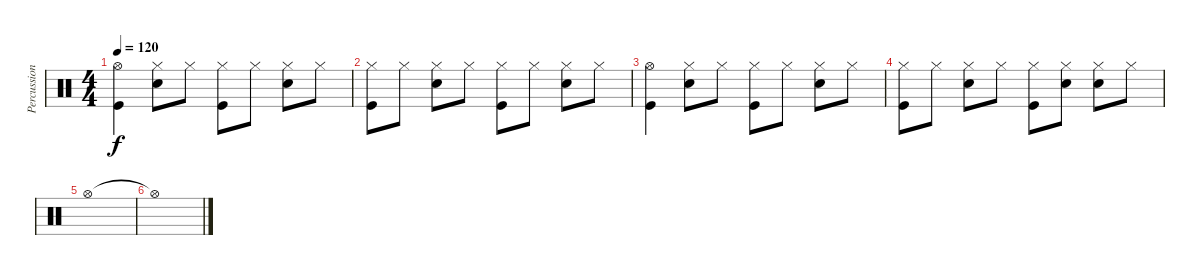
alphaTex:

\track ("Percussion" "Percussion") {instrument percussion}
\staff {score}
\articulation defaults
\ts (4 4)
\tempo 120
\clef neutral
\ks c
("Hi-Hat (open)" "Kick (hit)").4{dy f} ("Hi-Hat (closed)" "Snare (hit) 2").8 "Hi-Hat (closed)".8 ("Hi-Hat (closed)" "Kick (hit)").8 "Hi-Hat (closed)".8 ("Hi-Hat (closed)" "Snare (hit) 2").8 "Hi-Hat (closed)".8 |
("Hi-Hat (closed)" "Kick (hit)").8 "Hi-Hat (closed)".8 ("Hi-Hat (closed)" "Snare (hit) 2").8 "Hi-Hat (closed)".8 ("Hi-Hat (closed)" "Kick (hit)").8 "Hi-Hat (closed)".8 ("Hi-Hat (closed)" "Snare (hit) 2").8 "Hi-Hat (closed)".8 |
("Hi-Hat (open)" "Kick (hit)").4 ("Hi-Hat (closed)" "Snare (hit) 2").8 "Hi-Hat (closed)".8 ("Hi-Hat (closed)" "Kick (hit)").8 "Hi-Hat (closed)".8 ("Hi-Hat (closed)" "Snare (hit) 2").8 "Hi-Hat (closed)".8 |
("Hi-Hat (closed)" "Kick (hit)").8 "Hi-Hat (closed)".8 ("Hi-Hat (closed)" "Snare (hit) 2").8 "Hi-Hat (closed)".8 ("Hi-Hat (closed)" "Kick (hit)").8 ("Hi-Hat (closed)" "Snare (hit) 2").8 ("Hi-Hat (closed)" "Snare (hit) 2").8 "Hi-Hat (closed)".8 |
"Hi-Hat (open)".1 |
"Hi-Hat (open)"{t}.1
